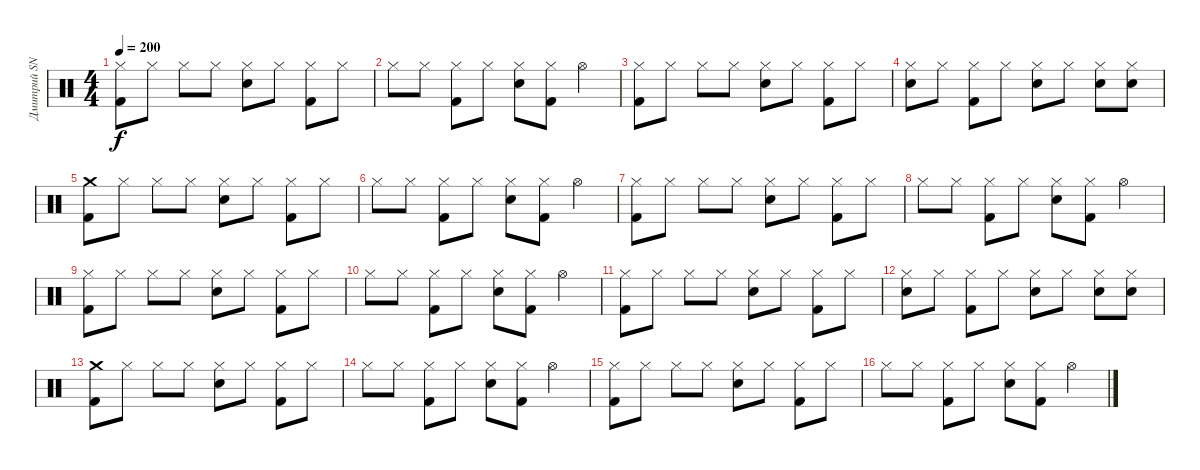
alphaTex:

\track ("Дмитрий SNAKE Хакимов" "Дмитрий SN") {instrument percussion}
\staff {score}
\articulation defaults
\ts (4 4)
\tempo 200
\clef neutral
\ks c
("Hi-Hat (closed)" "Kick (hit) 2").8{dy f} "Hi-Hat (closed)".8 "Hi-Hat (closed)".8 "Hi-Hat (closed)".8 ("Hi-Hat (closed)" "Snare (hit) 2").8 "Hi-Hat (closed)".8 ("Hi-Hat (closed)" "Kick (hit) 2").8 "Hi-Hat (closed)".8 |
"Hi-Hat (closed)".8 "Hi-Hat (closed)".8 ("Hi-Hat (closed)" "Kick (hit) 2").8 "Hi-Hat (closed)".8 ("Hi-Hat (closed)" "Snare (hit) 2").8 ("Hi-Hat (closed)" "Kick (hit) 2").8 "Hi-Hat (open)".4 |
("Hi-Hat (closed)" "Kick (hit) 2").8 "Hi-Hat (closed)".8 "Hi-Hat (closed)".8 "Hi-Hat (closed)".8 ("Hi-Hat (closed)" "Snare (hit) 2").8 "Hi-Hat (closed)".8 ("Hi-Hat (closed)" "Kick (hit) 2").8 "Hi-Hat (closed)".8 |
("Hi-Hat (closed)" "Snare (hit) 2").8 "Hi-Hat (closed)".8 ("Hi-Hat (closed)" "Kick (hit) 2").8 "Hi-Hat (closed)".8 ("Hi-Hat (closed)" "Snare (hit) 2").8 "Hi-Hat (closed)".8 ("Hi-Hat (closed)" "Snare (hit) 2").8 ("Hi-Hat (closed)" "Snare (hit) 2").8 |
("Crash medium (hit)" "Kick (hit) 2").8 "Hi-Hat (closed)".8 "Hi-Hat (closed)".8 "Hi-Hat (closed)".8 ("Hi-Hat (closed)" "Snare (hit) 2").8 "Hi-Hat (closed)".8 ("Hi-Hat (closed)" "Kick (hit) 2").8 "Hi-Hat (closed)".8 |
"Hi-Hat (closed)".8 "Hi-Hat (closed)".8 ("Hi-Hat (closed)" "Kick (hit) 2").8 "Hi-Hat (closed)".8 ("Hi-Hat (closed)" "Snare (hit) 2").8 ("Hi-Hat (closed)" "Kick (hit) 2").8 "Hi-Hat (open)".4 |
("Hi-Hat (closed)" "Kick (hit) 2").8 "Hi-Hat (closed)".8 "Hi-Hat (closed)".8 "Hi-Hat (closed)".8 ("Hi-Hat (closed)" "Snare (hit) 2").8 "Hi-Hat (closed)".8 ("Hi-Hat (closed)" "Kick (hit) 2").8 "Hi-Hat (closed)".8 |
"Hi-Hat (closed)".8 "Hi-Hat (closed)".8 ("Hi-Hat (closed)" "Kick (hit) 2").8 "Hi-Hat (closed)".8 ("Hi-Hat (closed)" "Snare (hit) 2").8 ("Hi-Hat (closed)" "Kick (hit) 2").8 "Hi-Hat (open)".4 |
("Hi-Hat (closed)" "Kick (hit) 2").8 "Hi-Hat (closed)".8 "Hi-Hat (closed)".8 "Hi-Hat (closed)".8 ("Hi-Hat (closed)" "Snare (hit) 2").8 "Hi-Hat (closed)".8 ("Hi-Hat (closed)" "Kick (hit) 2").8 "Hi-Hat (closed)".8 |
"Hi-Hat (closed)".8 "Hi-Hat (closed)".8 ("Hi-Hat (closed)" "Kick (hit) 2").8 "Hi-Hat (closed)".8 ("Hi-Hat (closed)" "Snare (hit) 2").8 ("Hi-Hat (closed)" "Kick (hit) 2").8 "Hi-Hat (open)".4 |
("Hi-Hat (closed)" "Kick (hit) 2").8 "Hi-Hat (closed)".8 "Hi-Hat (closed)".8 "Hi-Hat (closed)".8 ("Hi-Hat (closed)" "Snare (hit) 2").8 "Hi-Hat (closed)".8 ("Hi-Hat (closed)" "Kick (hit) 2").8 "Hi-Hat (closed)".8 |
("Hi-Hat (closed)" "Snare (hit) 2").8 "Hi-Hat (closed)".8 ("Hi-Hat (closed)" "Kick (hit) 2").8 "Hi-Hat (closed)".8 ("Hi-Hat (closed)" "Snare (hit) 2").8 "Hi-Hat (closed)".8 ("Hi-Hat (closed)" "Snare (hit) 2").8 ("Hi-Hat (closed)" "Snare (hit) 2").8 |
("Crash medium (hit)" "Kick (hit) 2").8 "Hi-Hat (closed)".8 "Hi-Hat (closed)".8 "Hi-Hat (closed)".8 ("Hi-Hat (closed)" "Snare (hit) 2").8 "Hi-Hat (closed)".8 ("Hi-Hat (closed)" "Kick (hit) 2").8 "Hi-Hat (closed)".8 |
"Hi-Hat (closed)".8 "Hi-Hat (closed)".8 ("Hi-Hat (closed)" "Kick (hit) 2").8 "Hi-Hat (closed)".8 ("Hi-Hat (closed)" "Snare (hit) 2").8 ("Hi-Hat (closed)" "Kick (hit) 2").8 "Hi-Hat (open)".4 |
("Hi-Hat (closed)" "Kick (hit) 2").8 "Hi-Hat (closed)".8 "Hi-Hat (closed)".8 "Hi-Hat (closed)".8 ("Hi-Hat (closed)" "Snare (hit) 2").8 "Hi-Hat (closed)".8 ("Hi-Hat (closed)" "Kick (hit) 2").8 "Hi-Hat (closed)".8 |
"Hi-Hat (closed)".8 "Hi-Hat (closed)".8 ("Hi-Hat (closed)" "Kick (hit) 2").8 "Hi-Hat (closed)".8 ("Hi-Hat (closed)" "Snare (hit) 2").8 ("Hi-Hat (closed)" "Kick (hit) 2").8 "Hi-Hat (open)".4
